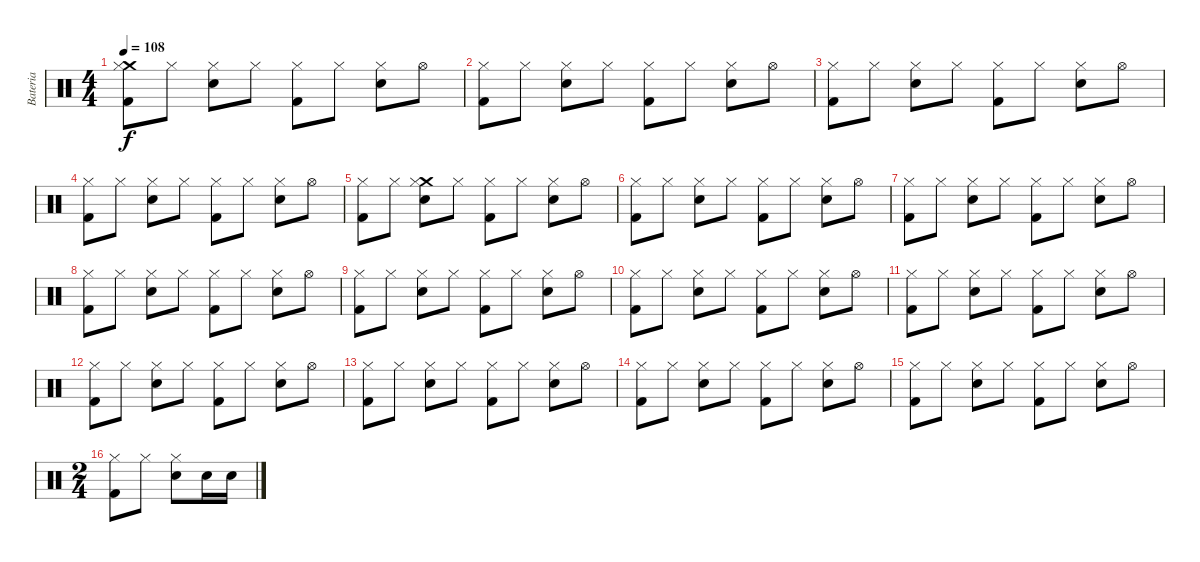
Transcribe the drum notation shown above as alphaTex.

\track ("Bateria" "Bateria") {instrument percussion}
\staff {score}
\articulation defaults
\ts (4 4)
\tempo 108
\clef neutral
\ks c
("Crash medium (hit)" "Hi-Hat (closed)" "Kick (hit) 2").8{dy f} "Hi-Hat (closed)".8 ("Hi-Hat (closed)" "Electric Snare (hit)").8 "Hi-Hat (closed)".8 ("Hi-Hat (closed)" "Kick (hit) 2").8 "Hi-Hat (closed)".8 ("Hi-Hat (closed)" "Electric Snare (hit)").8 "Hi-Hat (open)".8 |
("Hi-Hat (closed)" "Kick (hit) 2").8 "Hi-Hat (closed)".8 ("Hi-Hat (closed)" "Electric Snare (hit)").8 "Hi-Hat (closed)".8 ("Hi-Hat (closed)" "Kick (hit) 2").8 "Hi-Hat (closed)".8 ("Hi-Hat (closed)" "Electric Snare (hit)").8 "Hi-Hat (open)".8 |
("Hi-Hat (closed)" "Kick (hit) 2").8 "Hi-Hat (closed)".8 ("Hi-Hat (closed)" "Electric Snare (hit)").8 "Hi-Hat (closed)".8 ("Hi-Hat (closed)" "Kick (hit) 2").8 "Hi-Hat (closed)".8 ("Hi-Hat (closed)" "Electric Snare (hit)").8 "Hi-Hat (open)".8 |
("Hi-Hat (closed)" "Kick (hit) 2").8 "Hi-Hat (closed)".8 ("Hi-Hat (closed)" "Electric Snare (hit)").8 "Hi-Hat (closed)".8 ("Hi-Hat (closed)" "Kick (hit) 2").8 "Hi-Hat (closed)".8 ("Hi-Hat (closed)" "Electric Snare (hit)").8 "Hi-Hat (open)".8 |
("Hi-Hat (closed)" "Kick (hit) 2").8 "Hi-Hat (closed)".8 ("Crash medium (hit)" "Hi-Hat (closed)" "Electric Snare (hit)").8 "Hi-Hat (closed)".8 ("Hi-Hat (closed)" "Kick (hit) 2").8 "Hi-Hat (closed)".8 ("Hi-Hat (closed)" "Electric Snare (hit)").8 "Hi-Hat (open)".8 |
("Hi-Hat (closed)" "Kick (hit) 2").8 "Hi-Hat (closed)".8 ("Hi-Hat (closed)" "Electric Snare (hit)").8 "Hi-Hat (closed)".8 ("Hi-Hat (closed)" "Kick (hit) 2").8 "Hi-Hat (closed)".8 ("Hi-Hat (closed)" "Electric Snare (hit)").8 "Hi-Hat (open)".8 |
("Hi-Hat (closed)" "Kick (hit) 2").8 "Hi-Hat (closed)".8 ("Hi-Hat (closed)" "Electric Snare (hit)").8 "Hi-Hat (closed)".8 ("Hi-Hat (closed)" "Kick (hit) 2").8 "Hi-Hat (closed)".8 ("Hi-Hat (closed)" "Electric Snare (hit)").8 "Hi-Hat (open)".8 |
("Hi-Hat (closed)" "Kick (hit) 2").8 "Hi-Hat (closed)".8 ("Hi-Hat (closed)" "Electric Snare (hit)").8 "Hi-Hat (closed)".8 ("Hi-Hat (closed)" "Kick (hit) 2").8 "Hi-Hat (closed)".8 ("Hi-Hat (closed)" "Electric Snare (hit)").8 "Hi-Hat (open)".8 |
("Hi-Hat (closed)" "Kick (hit) 2").8 "Hi-Hat (closed)".8 ("Hi-Hat (closed)" "Electric Snare (hit)").8 "Hi-Hat (closed)".8 ("Hi-Hat (closed)" "Kick (hit) 2").8 "Hi-Hat (closed)".8 ("Hi-Hat (closed)" "Electric Snare (hit)").8 "Hi-Hat (open)".8 |
("Hi-Hat (closed)" "Kick (hit) 2").8 "Hi-Hat (closed)".8 ("Hi-Hat (closed)" "Electric Snare (hit)").8 "Hi-Hat (closed)".8 ("Hi-Hat (closed)" "Kick (hit) 2").8 "Hi-Hat (closed)".8 ("Hi-Hat (closed)" "Electric Snare (hit)").8 "Hi-Hat (open)".8 |
("Hi-Hat (closed)" "Kick (hit) 2").8 "Hi-Hat (closed)".8 ("Hi-Hat (closed)" "Electric Snare (hit)").8 "Hi-Hat (closed)".8 ("Hi-Hat (closed)" "Kick (hit) 2").8 "Hi-Hat (closed)".8 ("Hi-Hat (closed)" "Electric Snare (hit)").8 "Hi-Hat (open)".8 |
("Hi-Hat (closed)" "Kick (hit) 2").8 "Hi-Hat (closed)".8 ("Hi-Hat (closed)" "Electric Snare (hit)").8 "Hi-Hat (closed)".8 ("Hi-Hat (closed)" "Kick (hit) 2").8 "Hi-Hat (closed)".8 ("Hi-Hat (closed)" "Electric Snare (hit)").8 "Hi-Hat (open)".8 |
("Hi-Hat (closed)" "Kick (hit) 2").8 "Hi-Hat (closed)".8 ("Hi-Hat (closed)" "Electric Snare (hit)").8 "Hi-Hat (closed)".8 ("Hi-Hat (closed)" "Kick (hit) 2").8 "Hi-Hat (closed)".8 ("Hi-Hat (closed)" "Electric Snare (hit)").8 "Hi-Hat (open)".8 |
("Hi-Hat (closed)" "Kick (hit) 2").8 "Hi-Hat (closed)".8 ("Hi-Hat (closed)" "Electric Snare (hit)").8 "Hi-Hat (closed)".8 ("Hi-Hat (closed)" "Kick (hit) 2").8 "Hi-Hat (closed)".8 ("Hi-Hat (closed)" "Electric Snare (hit)").8 "Hi-Hat (open)".8 |
("Hi-Hat (closed)" "Kick (hit) 2").8 "Hi-Hat (closed)".8 ("Hi-Hat (closed)" "Electric Snare (hit)").8 "Hi-Hat (closed)".8 ("Hi-Hat (closed)" "Kick (hit) 2").8 "Hi-Hat (closed)".8 ("Hi-Hat (closed)" "Electric Snare (hit)").8 "Hi-Hat (open)".8 |
\ts (2 4)
("Hi-Hat (closed)" "Kick (hit) 2").8 "Hi-Hat (closed)".8 ("Hi-Hat (closed)" "Electric Snare (hit)").8 "Electric Snare (hit)".16 "Electric Snare (hit)".16
